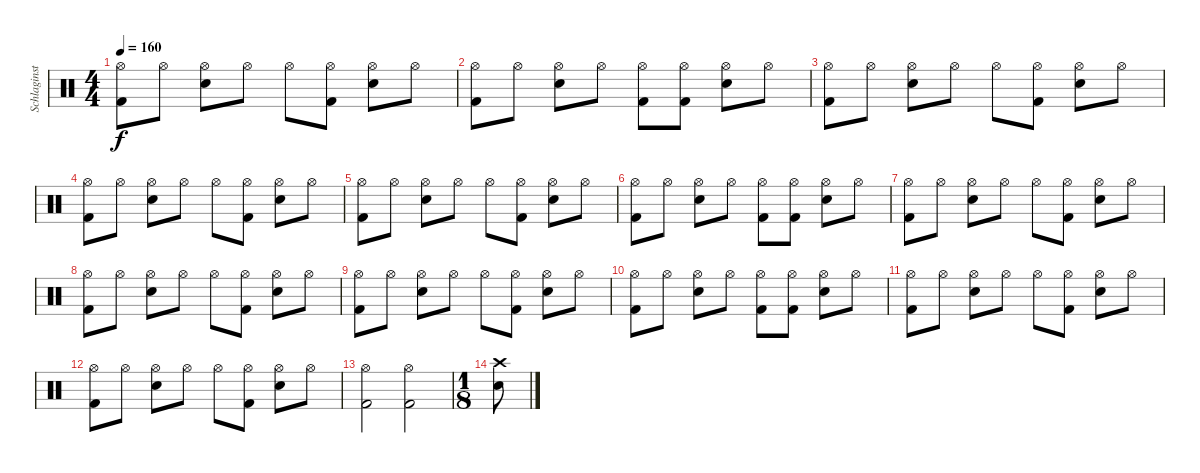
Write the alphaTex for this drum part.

\track ("Schlaginstrumente - Auswahl" "Schlaginst") {instrument percussion}
\staff {score}
\articulation defaults
\ts (4 4)
\tempo 160
\clef neutral
\ks c
("Kick (hit) 2" "Hi-Hat (open)").8{dy f} "Hi-Hat (open)".8 ("Snare (hit) 2" "Hi-Hat (open)").8 "Hi-Hat (open)".8 "Hi-Hat (open)".8 ("Kick (hit) 2" "Hi-Hat (open)").8 ("Snare (hit) 2" "Hi-Hat (open)").8 "Hi-Hat (open)".8 |
("Kick (hit) 2" "Hi-Hat (open)").8 "Hi-Hat (open)".8 ("Snare (hit) 2" "Hi-Hat (open)").8 "Hi-Hat (open)".8 ("Kick (hit) 2" "Hi-Hat (open)").8 ("Kick (hit) 2" "Hi-Hat (open)").8 ("Snare (hit) 2" "Hi-Hat (open)").8 "Hi-Hat (open)".8 |
("Kick (hit) 2" "Hi-Hat (open)").8 "Hi-Hat (open)".8 ("Snare (hit) 2" "Hi-Hat (open)").8 "Hi-Hat (open)".8 "Hi-Hat (open)".8 ("Kick (hit) 2" "Hi-Hat (open)").8 ("Snare (hit) 2" "Hi-Hat (open)").8 "Hi-Hat (open)".8 |
("Kick (hit) 2" "Hi-Hat (open)").8 "Hi-Hat (open)".8 ("Snare (hit) 2" "Hi-Hat (open)").8 "Hi-Hat (open)".8 "Hi-Hat (open)".8 ("Kick (hit) 2" "Hi-Hat (open)").8 ("Snare (hit) 2" "Hi-Hat (open)").8 "Hi-Hat (open)".8 |
("Kick (hit) 2" "Hi-Hat (open)").8 "Hi-Hat (open)".8 ("Snare (hit) 2" "Hi-Hat (open)").8 "Hi-Hat (open)".8 "Hi-Hat (open)".8 ("Kick (hit) 2" "Hi-Hat (open)").8 ("Snare (hit) 2" "Hi-Hat (open)").8 "Hi-Hat (open)".8 |
("Kick (hit) 2" "Hi-Hat (open)").8 "Hi-Hat (open)".8 ("Snare (hit) 2" "Hi-Hat (open)").8 "Hi-Hat (open)".8 ("Kick (hit) 2" "Hi-Hat (open)").8 ("Kick (hit) 2" "Hi-Hat (open)").8 ("Snare (hit) 2" "Hi-Hat (open)").8 "Hi-Hat (open)".8 |
("Kick (hit) 2" "Hi-Hat (open)").8 "Hi-Hat (open)".8 ("Snare (hit) 2" "Hi-Hat (open)").8 "Hi-Hat (open)".8 "Hi-Hat (open)".8 ("Kick (hit) 2" "Hi-Hat (open)").8 ("Snare (hit) 2" "Hi-Hat (open)").8 "Hi-Hat (open)".8 |
("Kick (hit) 2" "Hi-Hat (open)").8 "Hi-Hat (open)".8 ("Snare (hit) 2" "Hi-Hat (open)").8 "Hi-Hat (open)".8 "Hi-Hat (open)".8 ("Kick (hit) 2" "Hi-Hat (open)").8 ("Snare (hit) 2" "Hi-Hat (open)").8 "Hi-Hat (open)".8 |
("Kick (hit) 2" "Hi-Hat (open)").8 "Hi-Hat (open)".8 ("Snare (hit) 2" "Hi-Hat (open)").8 "Hi-Hat (open)".8 "Hi-Hat (open)".8 ("Kick (hit) 2" "Hi-Hat (open)").8 ("Snare (hit) 2" "Hi-Hat (open)").8 "Hi-Hat (open)".8 |
("Kick (hit) 2" "Hi-Hat (open)").8 "Hi-Hat (open)".8 ("Snare (hit) 2" "Hi-Hat (open)").8 "Hi-Hat (open)".8 ("Kick (hit) 2" "Hi-Hat (open)").8 ("Kick (hit) 2" "Hi-Hat (open)").8 ("Snare (hit) 2" "Hi-Hat (open)").8 "Hi-Hat (open)".8 |
("Kick (hit) 2" "Hi-Hat (open)").8 "Hi-Hat (open)".8 ("Snare (hit) 2" "Hi-Hat (open)").8 "Hi-Hat (open)".8 "Hi-Hat (open)".8 ("Kick (hit) 2" "Hi-Hat (open)").8 ("Snare (hit) 2" "Hi-Hat (open)").8 "Hi-Hat (open)".8 |
("Kick (hit) 2" "Hi-Hat (open)").8 "Hi-Hat (open)".8 ("Snare (hit) 2" "Hi-Hat (open)").8 "Hi-Hat (open)".8 "Hi-Hat (open)".8 ("Kick (hit) 2" "Hi-Hat (open)").8 ("Snare (hit) 2" "Hi-Hat (open)").8 "Hi-Hat (open)".8 |
("Hi-Hat (open)" "Kick (hit) 2").2 ("Hi-Hat (open)" "Kick (hit) 2").2 |
\ts (1 8)
("Crash high (hit)" "Snare (hit) 2").8
